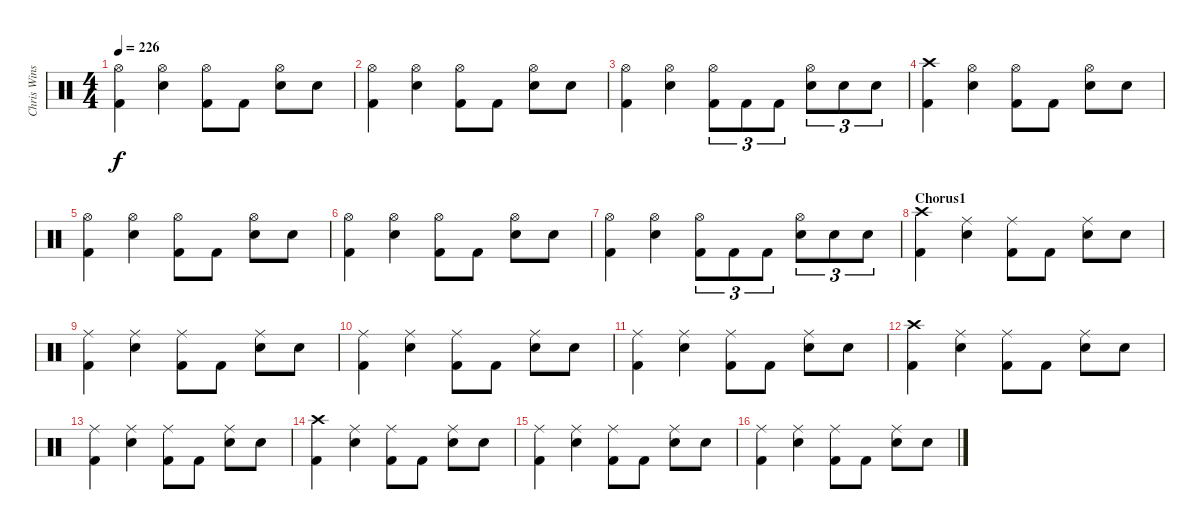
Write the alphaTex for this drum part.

\track ("Chris Winship (Drums)" "Chris Wins") {instrument percussion}
\staff {score}
\articulation defaults
\ts (4 4)
\tempo 226
\clef neutral
\ks c
("Hi-Hat (open)" "Kick (hit) 2").4{dy f} ("Hi-Hat (open)" "Electric Snare (hit)").4 ("Hi-Hat (open)" "Kick (hit) 2").8 "Kick (hit) 2".8 ("Hi-Hat (open)" "Electric Snare (hit)").8 "Electric Snare (hit)".8 |
("Hi-Hat (open)" "Kick (hit) 2").4 ("Hi-Hat (open)" "Electric Snare (hit)").4 ("Hi-Hat (open)" "Kick (hit) 2").8 "Kick (hit) 2".8 ("Hi-Hat (open)" "Electric Snare (hit)").8 "Electric Snare (hit)".8 |
("Hi-Hat (open)" "Kick (hit) 2").4 ("Hi-Hat (open)" "Electric Snare (hit)").4 ("Hi-Hat (open)" "Kick (hit) 2").8{tu (3 2)} "Kick (hit) 2".8{tu (3 2)} "Kick (hit) 2".8{tu (3 2)} ("Hi-Hat (open)" "Electric Snare (hit)").8{tu (3 2)} "Electric Snare (hit)".8{tu (3 2)} "Electric Snare (hit)".8{tu (3 2)} |
("Crash high (hit)" "Kick (hit) 2").4 ("Hi-Hat (open)" "Electric Snare (hit)").4 ("Hi-Hat (open)" "Kick (hit) 2").8 "Kick (hit) 2".8 ("Hi-Hat (open)" "Electric Snare (hit)").8 "Electric Snare (hit)".8 |
("Hi-Hat (open)" "Kick (hit) 2").4 ("Hi-Hat (open)" "Electric Snare (hit)").4 ("Hi-Hat (open)" "Kick (hit) 2").8 "Kick (hit) 2".8 ("Hi-Hat (open)" "Electric Snare (hit)").8 "Electric Snare (hit)".8 |
("Hi-Hat (open)" "Kick (hit) 2").4 ("Hi-Hat (open)" "Electric Snare (hit)").4 ("Hi-Hat (open)" "Kick (hit) 2").8 "Kick (hit) 2".8 ("Hi-Hat (open)" "Electric Snare (hit)").8 "Electric Snare (hit)".8 |
("Hi-Hat (open)" "Kick (hit) 2").4 ("Hi-Hat (open)" "Electric Snare (hit)").4 ("Hi-Hat (open)" "Kick (hit) 2").8{tu (3 2)} "Kick (hit) 2".8{tu (3 2)} "Kick (hit) 2".8{tu (3 2)} ("Hi-Hat (open)" "Electric Snare (hit)").8{tu (3 2)} "Electric Snare (hit)".8{tu (3 2)} "Electric Snare (hit)".8{tu (3 2)} |
\section ("" "Chorus1")
("Crash high (hit)" "Kick (hit) 2").4 ("Ride (middle)" "Electric Snare (hit)").4 ("Ride (middle)" "Kick (hit) 2").8 "Kick (hit) 2".8 ("Ride (middle)" "Electric Snare (hit)").8 "Electric Snare (hit)".8 |
("Ride (middle)" "Kick (hit) 2").4 ("Ride (middle)" "Electric Snare (hit)").4 ("Ride (middle)" "Kick (hit) 2").8 "Kick (hit) 2".8 ("Ride (middle)" "Electric Snare (hit)").8 "Electric Snare (hit)".8 |
("Ride (middle)" "Kick (hit) 2").4 ("Ride (middle)" "Electric Snare (hit)").4 ("Ride (middle)" "Kick (hit) 2").8 "Kick (hit) 2".8 ("Ride (middle)" "Electric Snare (hit)").8 "Electric Snare (hit)".8 |
("Ride (middle)" "Kick (hit) 2").4 ("Ride (middle)" "Electric Snare (hit)").4 ("Ride (middle)" "Kick (hit) 2").8 "Kick (hit) 2".8 ("Ride (middle)" "Electric Snare (hit)").8 "Electric Snare (hit)".8 |
("Crash high (hit)" "Kick (hit) 2").4 ("Ride (middle)" "Electric Snare (hit)").4 ("Ride (middle)" "Kick (hit) 2").8 "Kick (hit) 2".8 ("Ride (middle)" "Electric Snare (hit)").8 "Electric Snare (hit)".8 |
("Ride (middle)" "Kick (hit) 2").4 ("Ride (middle)" "Electric Snare (hit)").4 ("Ride (middle)" "Kick (hit) 2").8 "Kick (hit) 2".8 ("Ride (middle)" "Electric Snare (hit)").8 "Electric Snare (hit)".8 |
("Crash high (hit)" "Kick (hit) 2").4 ("Ride (middle)" "Electric Snare (hit)").4 ("Ride (middle)" "Kick (hit) 2").8 "Kick (hit) 2".8 ("Ride (middle)" "Electric Snare (hit)").8 "Electric Snare (hit)".8 |
("Ride (middle)" "Kick (hit) 2").4 ("Ride (middle)" "Electric Snare (hit)").4 ("Ride (middle)" "Kick (hit) 2").8 "Kick (hit) 2".8 ("Ride (middle)" "Electric Snare (hit)").8 "Electric Snare (hit)".8 |
("Ride (middle)" "Kick (hit) 2").4 ("Ride (middle)" "Electric Snare (hit)").4 ("Ride (middle)" "Kick (hit) 2").8 "Kick (hit) 2".8 ("Ride (middle)" "Electric Snare (hit)").8 "Electric Snare (hit)".8
